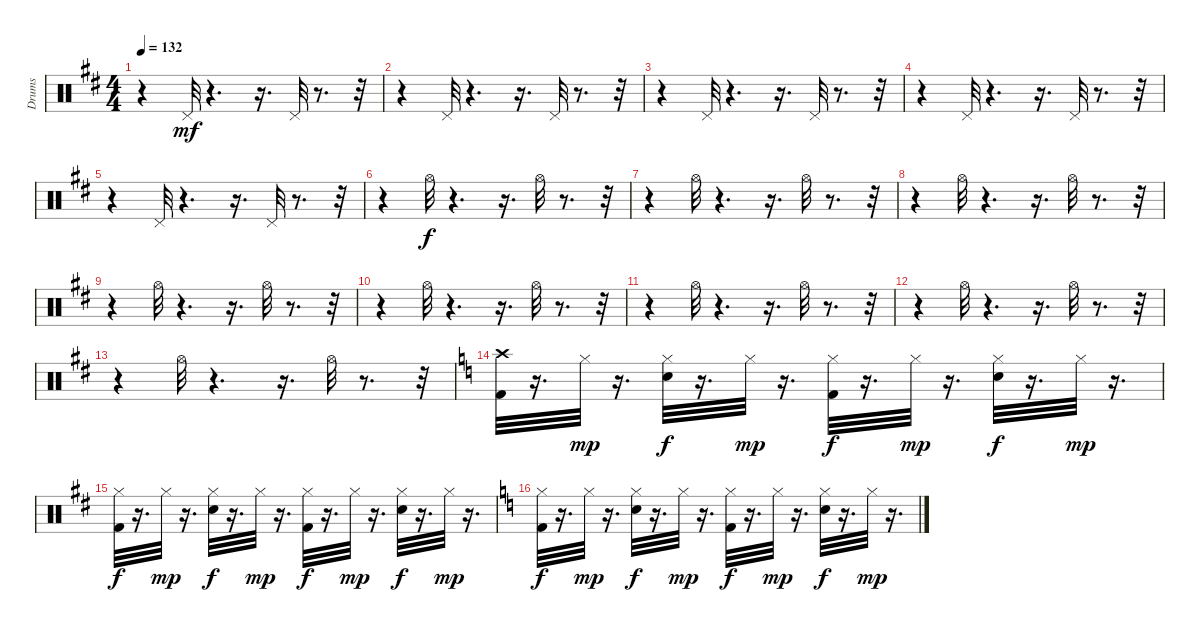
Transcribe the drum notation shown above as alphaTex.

\track ("Drums" "Drums") {instrument percussion}
\staff {score}
\articulation defaults
\ts (4 4)
\tempo 132
\clef neutral
\ks d
r.4{dy mf} "Pedal Hi-Hat (hit)".32 r.4{d} r.16{d} "Pedal Hi-Hat (hit)".32 r.8{d} r.32 |
r.4 "Pedal Hi-Hat (hit)".32 r.4{d} r.16{d} "Pedal Hi-Hat (hit)".32 r.8{d} r.32 |
r.4 "Pedal Hi-Hat (hit)".32 r.4{d} r.16{d} "Pedal Hi-Hat (hit)".32 r.8{d} r.32 |
r.4 "Pedal Hi-Hat (hit)".32 r.4{d} r.16{d} "Pedal Hi-Hat (hit)".32 r.8{d} r.32 |
r.4 "Pedal Hi-Hat (hit)".32 r.4{d} r.16{d} "Pedal Hi-Hat (hit)".32 r.8{d} r.32 |
r.4 "Hi-Hat (open)".32{dy f} r.4{d} r.16{d} "Hi-Hat (open)".32 r.8{d} r.32 |
r.4 "Hi-Hat (open)".32 r.4{d} r.16{d} "Hi-Hat (open)".32 r.8{d} r.32 |
r.4 "Hi-Hat (open)".32 r.4{d} r.16{d} "Hi-Hat (open)".32 r.8{d} r.32 |
r.4 "Hi-Hat (open)".32 r.4{d} r.16{d} "Hi-Hat (open)".32 r.8{d} r.32 |
r.4 "Hi-Hat (open)".32 r.4{d} r.16{d} "Hi-Hat (open)".32 r.8{d} r.32 |
r.4 "Hi-Hat (open)".32 r.4{d} r.16{d} "Hi-Hat (open)".32 r.8{d} r.32 |
r.4 "Hi-Hat (open)".32 r.4{d} r.16{d} "Hi-Hat (open)".32 r.8{d} r.32 |
r.4 "Hi-Hat (open)".32 r.4{d} r.16{d} "Hi-Hat (open)".32 r.8{d} r.32 |
\ks c
("Crash high (hit)" "Kick (hit) 2").32 r.16{d} "Hi-Hat (closed)".32{dy mp} r.16{d} ("Hi-Hat (closed)" "Electric Snare (hit)").32{dy f} r.16{d} "Hi-Hat (closed)".32{dy mp} r.16{d} ("Hi-Hat (closed)" "Kick (hit) 2").32{dy f} r.16{d} "Hi-Hat (closed)".32{dy mp} r.16{d} ("Hi-Hat (closed)" "Electric Snare (hit)").32{dy f} r.16{d} "Hi-Hat (closed)".32{dy mp} r.16{d} |
\ks d
("Hi-Hat (closed)" "Kick (hit) 2").32{dy f} r.16{d} "Hi-Hat (closed)".32{dy mp} r.16{d} ("Hi-Hat (closed)" "Electric Snare (hit)").32{dy f} r.16{d} "Hi-Hat (closed)".32{dy mp} r.16{d} ("Hi-Hat (closed)" "Kick (hit) 2").32{dy f} r.16{d} "Hi-Hat (closed)".32{dy mp} r.16{d} ("Hi-Hat (closed)" "Electric Snare (hit)").32{dy f} r.16{d} "Hi-Hat (closed)".32{dy mp} r.16{d} |
\ks c
("Hi-Hat (closed)" "Kick (hit) 2").32{dy f} r.16{d} "Hi-Hat (closed)".32{dy mp} r.16{d} ("Hi-Hat (closed)" "Electric Snare (hit)").32{dy f} r.16{d} "Hi-Hat (closed)".32{dy mp} r.16{d} ("Hi-Hat (closed)" "Kick (hit) 2").32{dy f} r.16{d} "Hi-Hat (closed)".32{dy mp} r.16{d} ("Hi-Hat (closed)" "Electric Snare (hit)").32{dy f} r.16{d} "Hi-Hat (closed)".32{dy mp} r.16{d}
